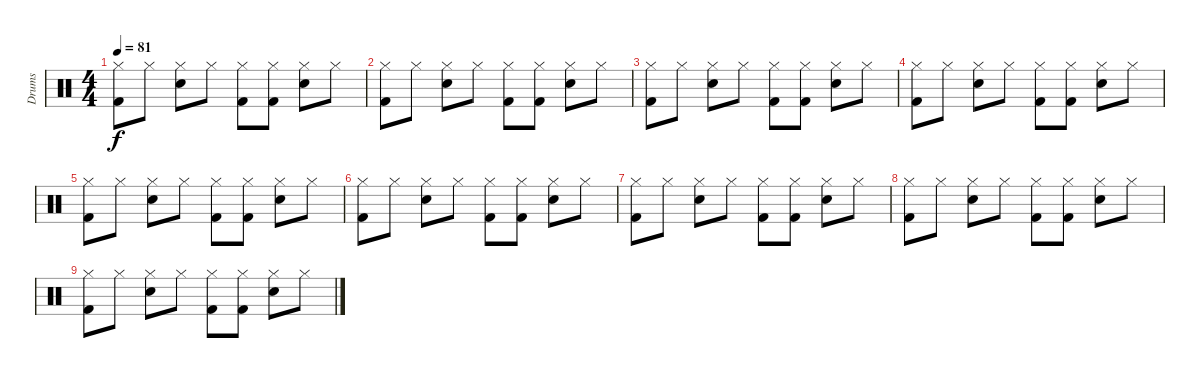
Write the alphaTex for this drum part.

\track ("Drums" "Drums") {instrument percussion}
\staff {score}
\articulation defaults
\ts (4 4)
\tempo 81
\clef neutral
\ks c
("Hi-Hat (closed)" "Kick (hit) 2").8{dy f} "Hi-Hat (closed)".8 ("Hi-Hat (closed)" "Snare (hit) 2").8 "Hi-Hat (closed)".8 ("Hi-Hat (closed)" "Kick (hit) 2").8 ("Hi-Hat (closed)" "Kick (hit) 2").8 ("Hi-Hat (closed)" "Snare (hit) 2").8 "Hi-Hat (closed)".8 |
("Hi-Hat (closed)" "Kick (hit) 2").8 "Hi-Hat (closed)".8 ("Hi-Hat (closed)" "Snare (hit) 2").8 "Hi-Hat (closed)".8 ("Hi-Hat (closed)" "Kick (hit) 2").8 ("Hi-Hat (closed)" "Kick (hit) 2").8 ("Hi-Hat (closed)" "Snare (hit) 2").8 "Hi-Hat (closed)".8 |
("Hi-Hat (closed)" "Kick (hit) 2").8 "Hi-Hat (closed)".8 ("Hi-Hat (closed)" "Snare (hit) 2").8 "Hi-Hat (closed)".8 ("Hi-Hat (closed)" "Kick (hit) 2").8 ("Hi-Hat (closed)" "Kick (hit) 2").8 ("Hi-Hat (closed)" "Snare (hit) 2").8 "Hi-Hat (closed)".8 |
("Hi-Hat (closed)" "Kick (hit) 2").8 "Hi-Hat (closed)".8 ("Hi-Hat (closed)" "Snare (hit) 2").8 "Hi-Hat (closed)".8 ("Hi-Hat (closed)" "Kick (hit) 2").8 ("Hi-Hat (closed)" "Kick (hit) 2").8 ("Hi-Hat (closed)" "Snare (hit) 2").8 "Hi-Hat (closed)".8 |
("Hi-Hat (closed)" "Kick (hit) 2").8 "Hi-Hat (closed)".8 ("Hi-Hat (closed)" "Snare (hit) 2").8 "Hi-Hat (closed)".8 ("Hi-Hat (closed)" "Kick (hit) 2").8 ("Hi-Hat (closed)" "Kick (hit) 2").8 ("Hi-Hat (closed)" "Snare (hit) 2").8 "Hi-Hat (closed)".8 |
("Hi-Hat (closed)" "Kick (hit) 2").8 "Hi-Hat (closed)".8 ("Hi-Hat (closed)" "Snare (hit) 2").8 "Hi-Hat (closed)".8 ("Hi-Hat (closed)" "Kick (hit) 2").8 ("Hi-Hat (closed)" "Kick (hit) 2").8 ("Hi-Hat (closed)" "Snare (hit) 2").8 "Hi-Hat (closed)".8 |
("Hi-Hat (closed)" "Kick (hit) 2").8 "Hi-Hat (closed)".8 ("Hi-Hat (closed)" "Snare (hit) 2").8 "Hi-Hat (closed)".8 ("Hi-Hat (closed)" "Kick (hit) 2").8 ("Hi-Hat (closed)" "Kick (hit) 2").8 ("Hi-Hat (closed)" "Snare (hit) 2").8 "Hi-Hat (closed)".8 |
("Hi-Hat (closed)" "Kick (hit) 2").8 "Hi-Hat (closed)".8 ("Hi-Hat (closed)" "Snare (hit) 2").8 "Hi-Hat (closed)".8 ("Hi-Hat (closed)" "Kick (hit) 2").8 ("Hi-Hat (closed)" "Kick (hit) 2").8 ("Hi-Hat (closed)" "Snare (hit) 2").8 "Hi-Hat (closed)".8 |
("Hi-Hat (closed)" "Kick (hit) 2").8 "Hi-Hat (closed)".8 ("Hi-Hat (closed)" "Snare (hit) 2").8 "Hi-Hat (closed)".8 ("Hi-Hat (closed)" "Kick (hit) 2").8 ("Hi-Hat (closed)" "Kick (hit) 2").8 ("Hi-Hat (closed)" "Snare (hit) 2").8 "Hi-Hat (closed)".8
